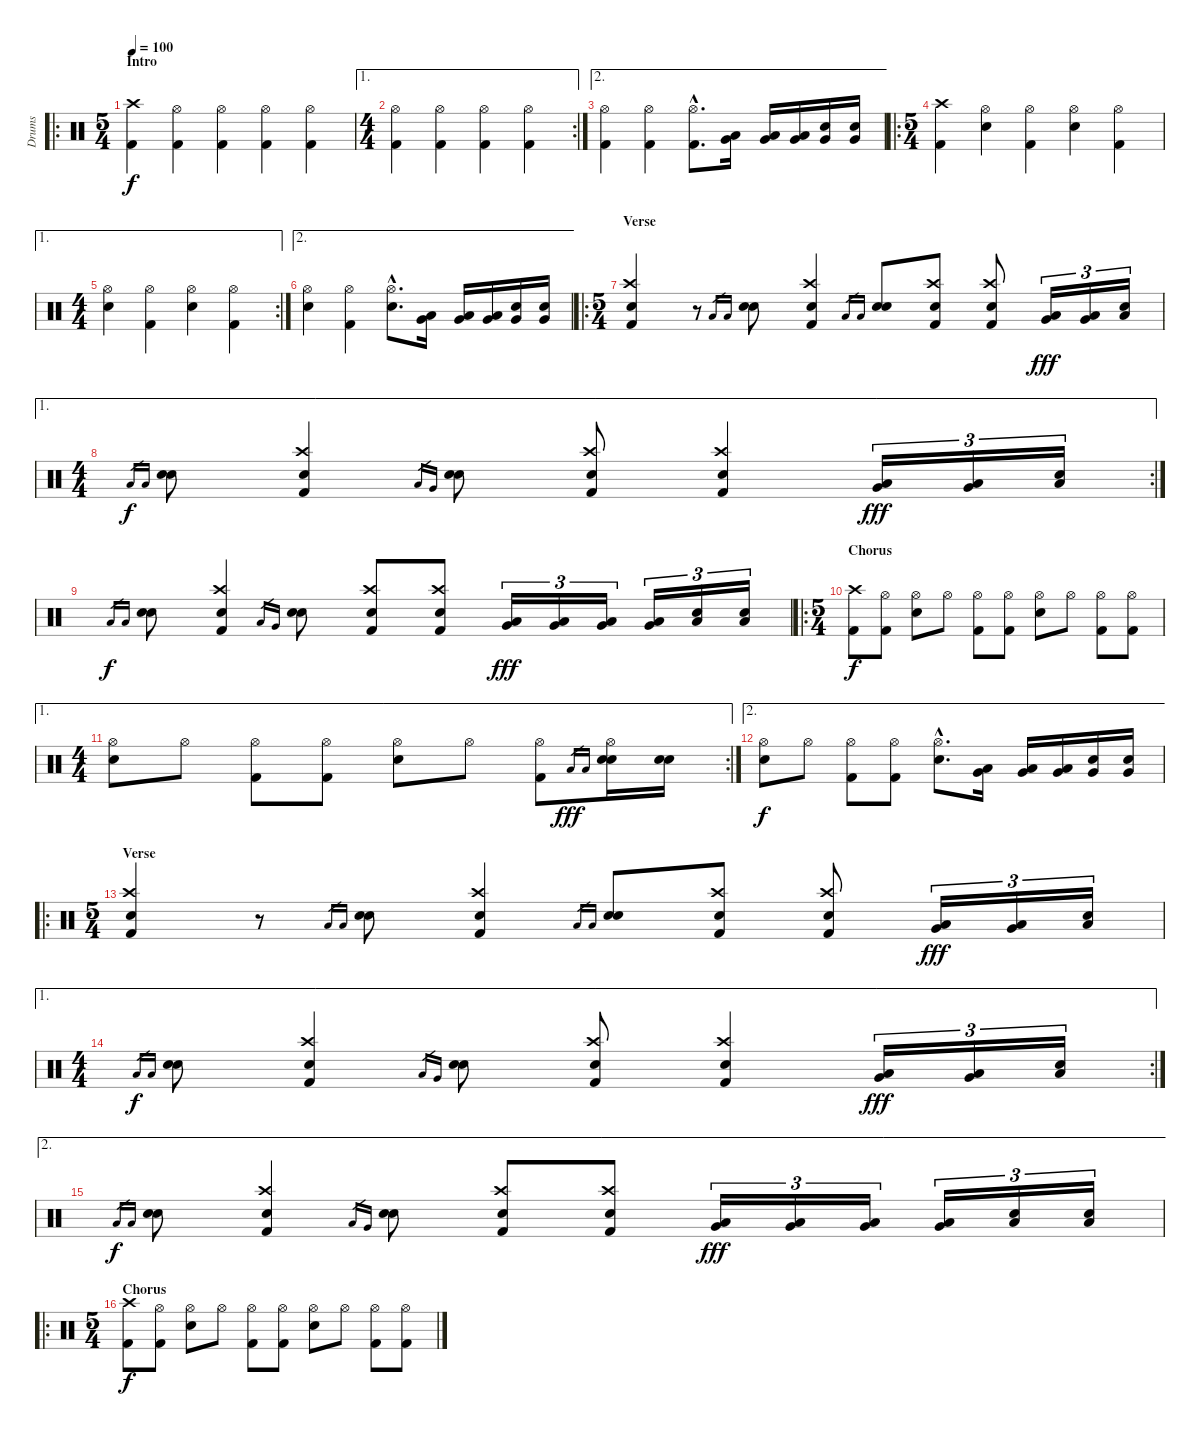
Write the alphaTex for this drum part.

\track ("Drums" "Drums") {instrument percussion}
\staff {score}
\articulation defaults
\ro
\ts (5 4)
\section ("" "Intro")
\tempo 100
\clef neutral
\ks c
("Kick (hit) 2" "Crash high (hit)").4{dy f} ("Kick (hit) 2" "Hi-Hat (open)").4 ("Kick (hit) 2" "Hi-Hat (open)").4 ("Kick (hit) 2" "Hi-Hat (open)").4 ("Kick (hit) 2" "Hi-Hat (open)").4 |
\ae 1
\rc 2
\ts (4 4)
("Kick (hit) 2" "Hi-Hat (open)").4 ("Kick (hit) 2" "Hi-Hat (open)").4 ("Kick (hit) 2" "Hi-Hat (open)").4 ("Kick (hit) 2" "Hi-Hat (open)").4 |
\ae 2
("Kick (hit) 2" "Hi-Hat (open)").4 ("Kick (hit) 2" "Hi-Hat (open)").4 ("Kick (hit) 2"{hac} "Hi-Hat (open)"{hac}).8{d} ("Very Low Tom (hit)" "Low Floor Tom (hit)").16 ("Very Low Tom (hit)" "Low Floor Tom (hit)").16 ("Low Tom (hit)" "Very Low Tom (hit)").16 ("Very Low Tom (hit)" "Electric Snare (hit)").16 ("Very Low Tom (hit)" "Electric Snare (hit)").16 |
\ro
\ts (5 4)
("Crash high (hit)" "Kick (hit) 2").4 ("Hi-Hat (open)" "Electric Snare (hit)").4 ("Hi-Hat (open)" "Kick (hit) 2").4 ("Hi-Hat (open)" "Electric Snare (hit)").4 ("Hi-Hat (open)" "Kick (hit) 2").4 |
\ae 1
\rc 2
\ts (4 4)
("Hi-Hat (open)" "Electric Snare (hit)").4 ("Hi-Hat (open)" "Kick (hit) 2").4 ("Hi-Hat (open)" "Electric Snare (hit)").4 ("Hi-Hat (open)" "Kick (hit) 2").4 |
\ae 2
("Electric Snare (hit)" "Hi-Hat (open)").4 ("Kick (hit) 2" "Hi-Hat (open)").4 ("Electric Snare (hit)"{hac} "Hi-Hat (open)"{hac}).8{d} ("Very Low Tom (hit)" "Low Floor Tom (hit)").16 ("Very Low Tom (hit)" "Low Floor Tom (hit)").16 ("Low Tom (hit)" "Very Low Tom (hit)").16 ("Very Low Tom (hit)" "Electric Snare (hit)").16 ("Very Low Tom (hit)" "Electric Snare (hit)").16 |
\ro
\ts (5 4)
\section ("" "Verse")
("Crash high (hit)" "Kick (hit) 2" "Electric Snare (hit)").4 r.8 "Low Floor Tom (hit)".16{gr} "Low Floor Tom (hit)".16{gr} ("Electric Snare (hit)" "Electric Snare (hit)").8 ("Crash high (hit)" "Electric Snare (hit)" "Kick (hit) 2").4 "Low Floor Tom (hit)".16{gr} "Low Floor Tom (hit)".16{gr} ("Electric Snare (hit)" "Electric Snare (hit)").8 ("Crash high (hit)" "Electric Snare (hit)" "Kick (hit) 2").8 ("Crash high (hit)" "Electric Snare (hit)" "Kick (hit) 2").8 ("Low Tom (hit)" "Very Low Tom (hit)").16{tu (3 2) dy fff} ("Very Low Tom (hit)" "Low Floor Tom (hit)").16{tu (3 2)} ("Low Floor Tom (hit)" "Electric Snare (hit)").16{tu (3 2)} |
\ae 1
\rc 2
\ts (4 4)
"Low Floor Tom (hit)".16{gr dy f} "Low Floor Tom (hit)".16{gr} ("Electric Snare (hit)" "Electric Snare (hit)").8 ("Crash high (hit)" "Kick (hit) 2" "Electric Snare (hit)").4 "Low Floor Tom (hit)".16{gr} "Very Low Tom (hit)".16{gr} ("Electric Snare (hit)" "Electric Snare (hit)").8 ("Crash high (hit)" "Kick (hit) 2" "Electric Snare (hit)").8 ("Crash high (hit)" "Kick (hit) 2" "Electric Snare (hit)").4 ("Low Tom (hit)" "Very Low Tom (hit)").16{tu (3 2) dy fff} ("Very Low Tom (hit)" "Low Floor Tom (hit)").16{tu (3 2)} ("Low Floor Tom (hit)" "Electric Snare (hit)").16{tu (3 2)} |
"Low Floor Tom (hit)".16{gr dy f} "Low Floor Tom (hit)".16{gr} ("Electric Snare (hit)" "Electric Snare (hit)").8 ("Crash high (hit)" "Kick (hit) 2" "Electric Snare (hit)").4 "Low Floor Tom (hit)".16{gr} "Very Low Tom (hit)".16{gr} ("Electric Snare (hit)" "Electric Snare (hit)").8 ("Crash high (hit)" "Kick (hit) 2" "Electric Snare (hit)").8 ("Crash high (hit)" "Kick (hit) 2" "Electric Snare (hit)").8 ("Low Tom (hit)" "Very Low Tom (hit)").16{tu (3 2) dy fff} ("Low Tom (hit)" "Very Low Tom (hit)").16{tu (3 2)} ("Very Low Tom (hit)" "Low Floor Tom (hit)").16{tu (3 2)} ("Very Low Tom (hit)" "Low Floor Tom (hit)").16{tu (3 2)} ("Low Floor Tom (hit)" "Electric Snare (hit)").16{tu (3 2)} ("Low Floor Tom (hit)" "Electric Snare (hit)").16{tu (3 2)} |
\ro
\ts (5 4)
\section ("" "Chorus")
("Crash high (hit)" "Kick (hit) 2").8{dy f} ("Hi-Hat (open)" "Kick (hit) 2").8 ("Hi-Hat (open)" "Electric Snare (hit)").8 "Hi-Hat (open)".8 ("Hi-Hat (open)" "Kick (hit) 2").8 ("Hi-Hat (open)" "Kick (hit) 2").8 ("Hi-Hat (open)" "Electric Snare (hit)").8 "Hi-Hat (open)".8 ("Hi-Hat (open)" "Kick (hit) 2").8 ("Hi-Hat (open)" "Kick (hit) 2").8 |
\ae 1
\rc 2
\ts (4 4)
("Hi-Hat (open)" "Electric Snare (hit)").8 "Hi-Hat (open)".8 ("Hi-Hat (open)" "Kick (hit) 2").8 ("Hi-Hat (open)" "Kick (hit) 2").8 ("Hi-Hat (open)" "Electric Snare (hit)").8 "Hi-Hat (open)".8 ("Hi-Hat (open)" "Kick (hit) 2").8 "Low Floor Tom (hit)".16{gr dy fff} "Low Floor Tom (hit)".16{gr} ("Hi-Hat (open)" "Electric Snare (hit)" "Electric Snare (hit)").16 ("Electric Snare (hit)" "Electric Snare (hit)").16 |
\ae 2
("Hi-Hat (open)" "Electric Snare (hit)").8{dy f} "Hi-Hat (open)".8 ("Hi-Hat (open)" "Kick (hit) 2").8 ("Hi-Hat (open)" "Kick (hit) 2").8 ("Hi-Hat (open)"{hac} "Electric Snare (hit)"{hac}).8{d} ("Very Low Tom (hit)" "Low Floor Tom (hit)").16 ("Very Low Tom (hit)" "Low Floor Tom (hit)").16 ("Low Tom (hit)" "Very Low Tom (hit)").16 ("Very Low Tom (hit)" "Electric Snare (hit)").16 ("Very Low Tom (hit)" "Electric Snare (hit)").16 |
\ro
\ts (5 4)
\section ("" "Verse")
("Crash high (hit)" "Kick (hit) 2" "Electric Snare (hit)").4 r.8 "Low Floor Tom (hit)".16{gr} "Low Floor Tom (hit)".16{gr} ("Electric Snare (hit)" "Electric Snare (hit)").8 ("Crash high (hit)" "Electric Snare (hit)" "Kick (hit) 2").4 "Low Floor Tom (hit)".16{gr} "Low Floor Tom (hit)".16{gr} ("Electric Snare (hit)" "Electric Snare (hit)").8 ("Crash high (hit)" "Electric Snare (hit)" "Kick (hit) 2").8 ("Crash high (hit)" "Electric Snare (hit)" "Kick (hit) 2").8 ("Low Tom (hit)" "Very Low Tom (hit)").16{tu (3 2) dy fff} ("Very Low Tom (hit)" "Low Floor Tom (hit)").16{tu (3 2)} ("Low Floor Tom (hit)" "Electric Snare (hit)").16{tu (3 2)} |
\ae 1
\rc 2
\ts (4 4)
"Low Floor Tom (hit)".16{gr dy f} "Low Floor Tom (hit)".16{gr} ("Electric Snare (hit)" "Electric Snare (hit)").8 ("Crash high (hit)" "Kick (hit) 2" "Electric Snare (hit)").4 "Low Floor Tom (hit)".16{gr} "Very Low Tom (hit)".16{gr} ("Electric Snare (hit)" "Electric Snare (hit)").8 ("Crash high (hit)" "Kick (hit) 2" "Electric Snare (hit)").8 ("Crash high (hit)" "Kick (hit) 2" "Electric Snare (hit)").4 ("Low Tom (hit)" "Very Low Tom (hit)").16{tu (3 2) dy fff} ("Very Low Tom (hit)" "Low Floor Tom (hit)").16{tu (3 2)} ("Low Floor Tom (hit)" "Electric Snare (hit)").16{tu (3 2)} |
\ae 2 "Low Floor Tom (hit)".16{gr dy f} "Low Floor Tom (hit)".16{gr}
("Electric Snare (hit)" "Electric Snare (hit)").8 ("Crash high (hit)" "Kick (hit) 2" "Electric Snare (hit)").4 "Low Floor Tom (hit)".16{gr} "Very Low Tom (hit)".16{gr} ("Electric Snare (hit)" "Electric Snare (hit)").8 ("Crash high (hit)" "Kick (hit) 2" "Electric Snare (hit)").8 ("Crash high (hit)" "Kick (hit) 2" "Electric Snare (hit)").8 ("Low Tom (hit)" "Very Low Tom (hit)").16{tu (3 2) dy fff} ("Low Tom (hit)" "Very Low Tom (hit)").16{tu (3 2)} ("Very Low Tom (hit)" "Low Floor Tom (hit)").16{tu (3 2)} ("Very Low Tom (hit)" "Low Floor Tom (hit)").16{tu (3 2)} ("Low Floor Tom (hit)" "Electric Snare (hit)").16{tu (3 2)} ("Low Floor Tom (hit)" "Electric Snare (hit)").16{tu (3 2)} |
\ro
\ts (5 4)
\section ("" "Chorus")
("Crash high (hit)" "Kick (hit) 2").8{dy f} ("Hi-Hat (open)" "Kick (hit) 2").8 ("Hi-Hat (open)" "Electric Snare (hit)").8 "Hi-Hat (open)".8 ("Hi-Hat (open)" "Kick (hit) 2").8 ("Hi-Hat (open)" "Kick (hit) 2").8 ("Hi-Hat (open)" "Electric Snare (hit)").8 "Hi-Hat (open)".8 ("Hi-Hat (open)" "Kick (hit) 2").8 ("Hi-Hat (open)" "Kick (hit) 2").8
